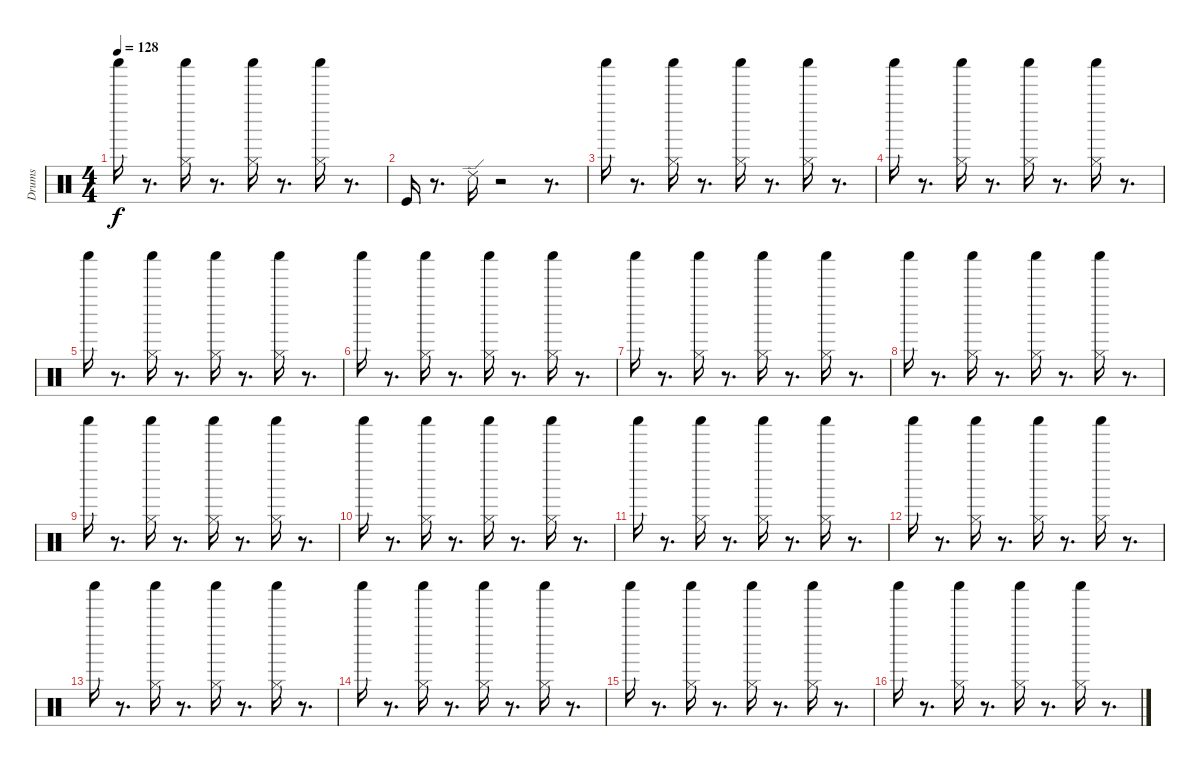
\track ("Drums  " "Drums  ") {instrument percussion}
\staff {score}
\articulation defaults
\ts (4 4)
\tempo 128
\clef neutral
\ks c "Shaker (hit)".16{dy f}
r.8{d} ("Shaker (hit)" "Hi-Hat (closed)").16 r.8{d} ("Shaker (hit)" "Hi-Hat (closed)").16 r.8{d} ("Shaker (hit)" "Hi-Hat (closed)").16 r.8{d} |
"Kick (hit)".16 r.8{d} "Ride (edge) 2".16 r.2 r.8{d} |
"Shaker (hit)".16 r.8{d} ("Shaker (hit)" "Hi-Hat (closed)").16 r.8{d} ("Shaker (hit)" "Hi-Hat (closed)").16 r.8{d} ("Shaker (hit)" "Hi-Hat (closed)").16 r.8{d} |
"Shaker (hit)".16 r.8{d} ("Shaker (hit)" "Hi-Hat (closed)").16 r.8{d} ("Shaker (hit)" "Hi-Hat (closed)").16 r.8{d} ("Shaker (hit)" "Hi-Hat (closed)").16 r.8{d} |
"Shaker (hit)".16 r.8{d} ("Shaker (hit)" "Hi-Hat (closed)").16 r.8{d} ("Shaker (hit)" "Hi-Hat (closed)").16 r.8{d} ("Shaker (hit)" "Hi-Hat (closed)").16 r.8{d} |
"Shaker (hit)".16 r.8{d} ("Shaker (hit)" "Hi-Hat (closed)").16 r.8{d} ("Shaker (hit)" "Hi-Hat (closed)").16 r.8{d} ("Shaker (hit)" "Hi-Hat (closed)").16 r.8{d} |
"Shaker (hit)".16 r.8{d} ("Shaker (hit)" "Hi-Hat (closed)").16 r.8{d} ("Shaker (hit)" "Hi-Hat (closed)").16 r.8{d} ("Shaker (hit)" "Hi-Hat (closed)").16 r.8{d} |
"Shaker (hit)".16 r.8{d} ("Shaker (hit)" "Hi-Hat (closed)").16 r.8{d} ("Shaker (hit)" "Hi-Hat (closed)").16 r.8{d} ("Shaker (hit)" "Hi-Hat (closed)").16 r.8{d} |
"Shaker (hit)".16 r.8{d} ("Shaker (hit)" "Hi-Hat (closed)").16 r.8{d} ("Shaker (hit)" "Hi-Hat (closed)").16 r.8{d} ("Shaker (hit)" "Hi-Hat (closed)").16 r.8{d} |
"Shaker (hit)".16 r.8{d} ("Shaker (hit)" "Hi-Hat (closed)").16 r.8{d} ("Shaker (hit)" "Hi-Hat (closed)").16 r.8{d} ("Shaker (hit)" "Hi-Hat (closed)").16 r.8{d} |
"Shaker (hit)".16 r.8{d} ("Shaker (hit)" "Hi-Hat (closed)").16 r.8{d} ("Shaker (hit)" "Hi-Hat (closed)").16 r.8{d} ("Shaker (hit)" "Hi-Hat (closed)").16 r.8{d} |
"Shaker (hit)".16 r.8{d} ("Shaker (hit)" "Hi-Hat (closed)").16 r.8{d} ("Shaker (hit)" "Hi-Hat (closed)").16 r.8{d} ("Shaker (hit)" "Hi-Hat (closed)").16 r.8{d} |
"Shaker (hit)".16 r.8{d} ("Shaker (hit)" "Hi-Hat (closed)").16 r.8{d} ("Shaker (hit)" "Hi-Hat (closed)").16 r.8{d} ("Shaker (hit)" "Hi-Hat (closed)").16 r.8{d} |
"Shaker (hit)".16 r.8{d} ("Shaker (hit)" "Hi-Hat (closed)").16 r.8{d} ("Shaker (hit)" "Hi-Hat (closed)").16 r.8{d} ("Shaker (hit)" "Hi-Hat (closed)").16 r.8{d} |
"Shaker (hit)".16 r.8{d} ("Shaker (hit)" "Hi-Hat (closed)").16 r.8{d} ("Shaker (hit)" "Hi-Hat (closed)").16 r.8{d} ("Shaker (hit)" "Hi-Hat (closed)").16 r.8{d} |
"Shaker (hit)".16 r.8{d} ("Shaker (hit)" "Hi-Hat (closed)").16 r.8{d} ("Shaker (hit)" "Hi-Hat (closed)").16 r.8{d} ("Shaker (hit)" "Hi-Hat (closed)").16 r.8{d}
